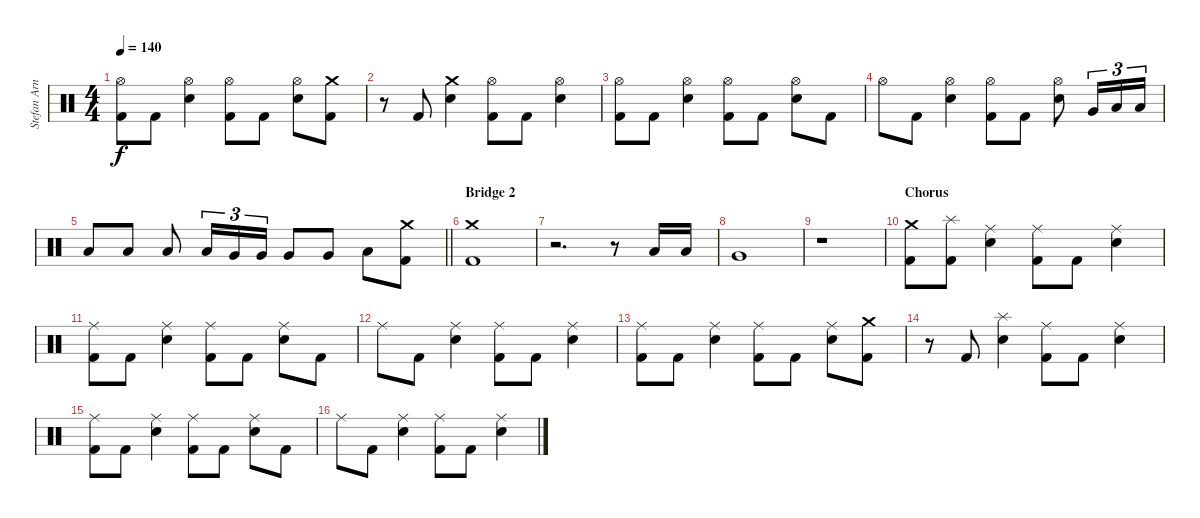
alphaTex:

\track ("Stefan Arnold" "Stefan Arn") {instrument percussion}
\staff {score}
\articulation defaults
\ts (4 4)
\tempo 140
\clef neutral
\ks c
("Hi-Hat (open)" "Kick (hit) 2").8{dy f} "Kick (hit) 2".8 ("Hi-Hat (open)" "Electric Snare (hit)").4 ("Hi-Hat (open)" "Kick (hit) 2").8 "Kick (hit) 2".8 ("Hi-Hat (open)" "Electric Snare (hit)").8 ("Crash medium (hit)" "Kick (hit) 2").8 |
r.8 "Kick (hit) 2".8 ("Crash medium (hit)" "Electric Snare (hit)").4 ("Hi-Hat (open)" "Kick (hit) 2").8 "Kick (hit) 2".8 ("Hi-Hat (open)" "Electric Snare (hit)").4 |
("Hi-Hat (open)" "Kick (hit) 2").8 "Kick (hit) 2".8 ("Hi-Hat (open)" "Electric Snare (hit)").4 ("Hi-Hat (open)" "Kick (hit) 2").8 "Kick (hit) 2".8 ("Hi-Hat (open)" "Electric Snare (hit)").8 "Kick (hit) 2".8 |
"Hi-Hat (open)".8 "Kick (hit) 2".8 ("Hi-Hat (open)" "Electric Snare (hit)").4 ("Hi-Hat (open)" "Kick (hit) 2").8 "Kick (hit) 2".8 ("Hi-Hat (open)" "Electric Snare (hit)").8 "Very Low Tom (hit)".16{tu (3 2)} "Low Tom (hit)".16{tu (3 2)} "Low Tom (hit)".16{tu (3 2)} |
\barLineRight lightlight "Low Tom (hit)".8 "Low Tom (hit)".8 "Low Tom (hit)".8 "Low Floor Tom (hit)".16{tu (3 2)} "Very Low Tom (hit)".16{tu (3 2)} "Very Low Tom (hit)".16{tu (3 2)} "Very Low Tom (hit)".8 "Very Low Tom (hit)".8 "Low Floor Tom (hit)".8
("Crash medium (hit)" "Kick (hit) 2").8 |
\section ("" "Bridge 2")
("Crash medium (hit)" "Kick (hit) 2").1 |
r.2{d} r.8 "Low Tom (hit)".16 "Low Tom (hit)".16 |
"Very Low Tom (hit)".1 |
r.1 |
\section ("" "Chorus")
("Crash medium (hit)" "Kick (hit) 2").8 ("Splash (hit)" "Kick (hit) 2").8 ("Ride (middle)" "Electric Snare (hit)").4 ("Ride (middle)" "Kick (hit) 2").8 "Kick (hit) 2".8 ("Ride (middle)" "Electric Snare (hit)").4 |
("Ride (middle)" "Kick (hit) 2").8 "Kick (hit) 2".8 ("Ride (middle)" "Electric Snare (hit)").4 ("Ride (middle)" "Kick (hit) 2").8 "Kick (hit) 2".8 ("Ride (middle)" "Electric Snare (hit)").8 "Kick (hit) 2".8 |
"Ride (middle)".8 "Kick (hit) 2".8 ("Ride (middle)" "Electric Snare (hit)").4 ("Ride (middle)" "Kick (hit) 2").8 "Kick (hit) 2".8 ("Ride (middle)" "Electric Snare (hit)").4 |
("Ride (middle)" "Kick (hit) 2").8 "Kick (hit) 2".8 ("Ride (middle)" "Electric Snare (hit)").4 ("Ride (middle)" "Kick (hit) 2").8 "Kick (hit) 2".8 ("Ride (middle)" "Electric Snare (hit)").8 ("Crash medium (hit)" "Kick (hit) 2").8 |
r.8 "Kick (hit) 2".8 ("Splash (hit)" "Electric Snare (hit)").4 ("Ride (middle)" "Kick (hit) 2").8 "Kick (hit) 2".8 ("Ride (middle)" "Electric Snare (hit)").4 |
("Ride (middle)" "Kick (hit) 2").8 "Kick (hit) 2".8 ("Ride (middle)" "Electric Snare (hit)").4 ("Ride (middle)" "Kick (hit) 2").8 "Kick (hit) 2".8 ("Ride (middle)" "Electric Snare (hit)").8 "Kick (hit) 2".8 |
"Ride (middle)".8 "Kick (hit) 2".8 ("Ride (middle)" "Electric Snare (hit)").4 ("Ride (middle)" "Kick (hit) 2").8 "Kick (hit) 2".8 ("Ride (middle)" "Electric Snare (hit)").4
